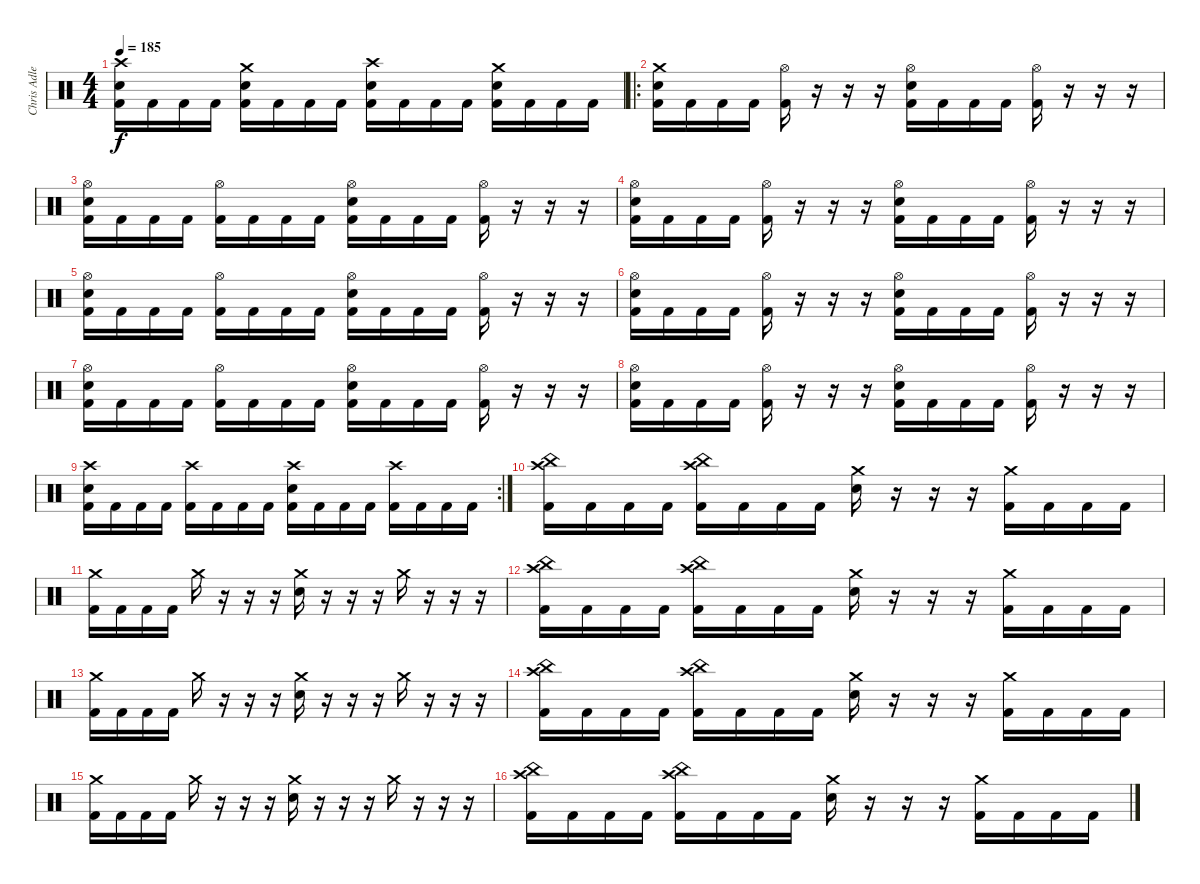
\track ("Chris Adler" "Chris Adle") {instrument percussion}
\staff {score}
\articulation defaults
\ts (4 4)
\tempo 185
\clef neutral
\ks c
("Crash high (hit)" "Electric Snare (hit)" "Kick (hit) 2").16{dy f} "Kick (hit) 2".16 "Kick (hit) 2".16 "Kick (hit) 2".16 ("Crash medium (hit)" "Electric Snare (hit)" "Kick (hit) 2").16 "Kick (hit) 2".16 "Kick (hit) 2".16 "Kick (hit) 2".16 ("Crash high (hit)" "Electric Snare (hit)" "Kick (hit) 2").16 "Kick (hit) 2".16 "Kick (hit) 2".16 "Kick (hit) 2".16 ("Crash medium (hit)" "Electric Snare (hit)" "Kick (hit) 2").16 "Kick (hit) 2".16 "Kick (hit) 2".16 "Kick (hit) 2".16 |
\ro
("Crash medium (hit)" "Electric Snare (hit)" "Kick (hit) 2").16 "Kick (hit) 2".16 "Kick (hit) 2".16 "Kick (hit) 2".16 ("Hi-Hat (open)" "Kick (hit) 2").16 r.16 r.16 r.16 ("Hi-Hat (open)" "Electric Snare (hit)" "Kick (hit) 2").16 "Kick (hit) 2".16 "Kick (hit) 2".16 "Kick (hit) 2".16 ("Hi-Hat (open)" "Kick (hit) 2").16 r.16 r.16 r.16 |
("Hi-Hat (open)" "Electric Snare (hit)" "Kick (hit) 2").16 "Kick (hit) 2".16 "Kick (hit) 2".16 "Kick (hit) 2".16 ("Hi-Hat (open)" "Kick (hit) 2").16 "Kick (hit) 2".16 "Kick (hit) 2".16 "Kick (hit) 2".16 ("Hi-Hat (open)" "Electric Snare (hit)" "Kick (hit) 2").16 "Kick (hit) 2".16 "Kick (hit) 2".16 "Kick (hit) 2".16 ("Hi-Hat (open)" "Kick (hit) 2").16 r.16 r.16 r.16 |
("Hi-Hat (open)" "Electric Snare (hit)" "Kick (hit) 2").16 "Kick (hit) 2".16 "Kick (hit) 2".16 "Kick (hit) 2".16 ("Hi-Hat (open)" "Kick (hit) 2").16 r.16 r.16 r.16 ("Hi-Hat (open)" "Electric Snare (hit)" "Kick (hit) 2").16 "Kick (hit) 2".16 "Kick (hit) 2".16 "Kick (hit) 2".16 ("Hi-Hat (open)" "Kick (hit) 2").16 r.16 r.16 r.16 |
("Hi-Hat (open)" "Electric Snare (hit)" "Kick (hit) 2").16 "Kick (hit) 2".16 "Kick (hit) 2".16 "Kick (hit) 2".16 ("Hi-Hat (open)" "Kick (hit) 2").16 "Kick (hit) 2".16 "Kick (hit) 2".16 "Kick (hit) 2".16 ("Hi-Hat (open)" "Electric Snare (hit)" "Kick (hit) 2").16 "Kick (hit) 2".16 "Kick (hit) 2".16 "Kick (hit) 2".16 ("Hi-Hat (open)" "Kick (hit) 2").16 r.16 r.16 r.16 |
("Hi-Hat (open)" "Electric Snare (hit)" "Kick (hit) 2").16 "Kick (hit) 2".16 "Kick (hit) 2".16 "Kick (hit) 2".16 ("Hi-Hat (open)" "Kick (hit) 2").16 r.16 r.16 r.16 ("Hi-Hat (open)" "Electric Snare (hit)" "Kick (hit) 2").16 "Kick (hit) 2".16 "Kick (hit) 2".16 "Kick (hit) 2".16 ("Hi-Hat (open)" "Kick (hit) 2").16 r.16 r.16 r.16 |
("Hi-Hat (open)" "Electric Snare (hit)" "Kick (hit) 2").16 "Kick (hit) 2".16 "Kick (hit) 2".16 "Kick (hit) 2".16 ("Hi-Hat (open)" "Kick (hit) 2").16 "Kick (hit) 2".16 "Kick (hit) 2".16 "Kick (hit) 2".16 ("Hi-Hat (open)" "Electric Snare (hit)" "Kick (hit) 2").16 "Kick (hit) 2".16 "Kick (hit) 2".16 "Kick (hit) 2".16 ("Hi-Hat (open)" "Kick (hit) 2").16 r.16 r.16 r.16 |
("Hi-Hat (open)" "Electric Snare (hit)" "Kick (hit) 2").16 "Kick (hit) 2".16 "Kick (hit) 2".16 "Kick (hit) 2".16 ("Hi-Hat (open)" "Kick (hit) 2").16 r.16 r.16 r.16 ("Hi-Hat (open)" "Electric Snare (hit)" "Kick (hit) 2").16 "Kick (hit) 2".16 "Kick (hit) 2".16 "Kick (hit) 2".16 ("Hi-Hat (open)" "Kick (hit) 2").16 r.16 r.16 r.16 |
\rc 2
("Crash high (hit)" "Electric Snare (hit)" "Kick (hit) 2").16 "Kick (hit) 2".16 "Kick (hit) 2".16 "Kick (hit) 2".16 ("Crash high (hit)" "Kick (hit) 2").16 "Kick (hit) 2".16 "Kick (hit) 2".16 "Kick (hit) 2".16 ("Crash high (hit)" "Electric Snare (hit)" "Kick (hit) 2").16 "Kick (hit) 2".16 "Kick (hit) 2".16 "Kick (hit) 2".16 ("Crash high (hit)" "Kick (hit) 2").16 "Kick (hit) 2".16 "Kick (hit) 2".16 "Kick (hit) 2".16 |
("Crash high (hit)" "China (hit)" "Kick (hit) 2").16 "Kick (hit) 2".16 "Kick (hit) 2".16 "Kick (hit) 2".16 ("Crash high (hit)" "China (hit)" "Kick (hit) 2").16 "Kick (hit) 2".16 "Kick (hit) 2".16 "Kick (hit) 2".16 ("Crash medium (hit)" "Electric Snare (hit)").16 r.16 r.16 r.16 ("Crash medium (hit)" "Kick (hit) 2").16 "Kick (hit) 2".16 "Kick (hit) 2".16 "Kick (hit) 2".16 |
("Crash medium (hit)" "Kick (hit) 2").16 "Kick (hit) 2".16 "Kick (hit) 2".16 "Kick (hit) 2".16 "Crash medium (hit)".16 r.16 r.16 r.16 ("Crash medium (hit)" "Electric Snare (hit)").16 r.16 r.16 r.16 "Crash medium (hit)".16 r.16 r.16 r.16 |
("Crash high (hit)" "China (hit)" "Kick (hit) 2").16 "Kick (hit) 2".16 "Kick (hit) 2".16 "Kick (hit) 2".16 ("Crash high (hit)" "China (hit)" "Kick (hit) 2").16 "Kick (hit) 2".16 "Kick (hit) 2".16 "Kick (hit) 2".16 ("Crash medium (hit)" "Electric Snare (hit)").16 r.16 r.16 r.16 ("Crash medium (hit)" "Kick (hit) 2").16 "Kick (hit) 2".16 "Kick (hit) 2".16 "Kick (hit) 2".16 |
("Crash medium (hit)" "Kick (hit) 2").16 "Kick (hit) 2".16 "Kick (hit) 2".16 "Kick (hit) 2".16 "Crash medium (hit)".16 r.16 r.16 r.16 ("Crash medium (hit)" "Electric Snare (hit)").16 r.16 r.16 r.16 "Crash medium (hit)".16 r.16 r.16 r.16 |
("Crash high (hit)" "China (hit)" "Kick (hit) 2").16 "Kick (hit) 2".16 "Kick (hit) 2".16 "Kick (hit) 2".16 ("Crash high (hit)" "China (hit)" "Kick (hit) 2").16 "Kick (hit) 2".16 "Kick (hit) 2".16 "Kick (hit) 2".16 ("Crash medium (hit)" "Electric Snare (hit)").16 r.16 r.16 r.16 ("Crash medium (hit)" "Kick (hit) 2").16 "Kick (hit) 2".16 "Kick (hit) 2".16 "Kick (hit) 2".16 |
("Crash medium (hit)" "Kick (hit) 2").16 "Kick (hit) 2".16 "Kick (hit) 2".16 "Kick (hit) 2".16 "Crash medium (hit)".16 r.16 r.16 r.16 ("Crash medium (hit)" "Electric Snare (hit)").16 r.16 r.16 r.16 "Crash medium (hit)".16 r.16 r.16 r.16 |
("Crash high (hit)" "China (hit)" "Kick (hit) 2").16 "Kick (hit) 2".16 "Kick (hit) 2".16 "Kick (hit) 2".16 ("Crash high (hit)" "China (hit)" "Kick (hit) 2").16 "Kick (hit) 2".16 "Kick (hit) 2".16 "Kick (hit) 2".16 ("Crash medium (hit)" "Electric Snare (hit)").16 r.16 r.16 r.16 ("Crash medium (hit)" "Kick (hit) 2").16 "Kick (hit) 2".16 "Kick (hit) 2".16 "Kick (hit) 2".16
